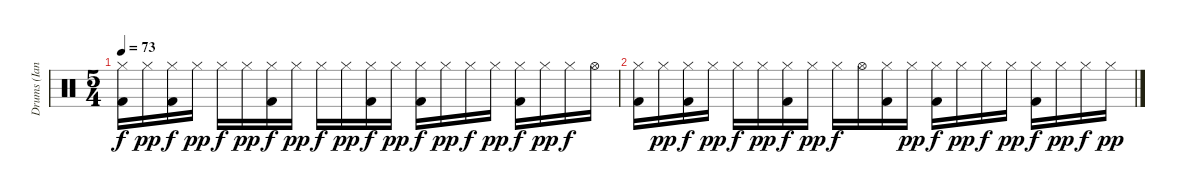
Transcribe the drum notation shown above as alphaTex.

\track ("Drums (Ian Mosley)" "Drums (Ian") {instrument percussion}
\staff {score}
\articulation defaults
\ts (5 4)
\tempo 73
\clef neutral
\ks c
("Kick (hit) 2" "Hi-Hat (closed)").16{dy f} "Hi-Hat (closed)".16{dy pp} ("Kick (hit) 2" "Hi-Hat (closed)").16{dy f} "Hi-Hat (closed)".16{dy pp} "Hi-Hat (closed)".16{dy f} "Hi-Hat (closed)".16{dy pp} ("Kick (hit) 2" "Hi-Hat (closed)").16{dy f} "Hi-Hat (closed)".16{dy pp} "Hi-Hat (closed)".16{dy f} "Hi-Hat (closed)".16{dy pp} ("Kick (hit) 2" "Hi-Hat (closed)").16{dy f} "Hi-Hat (closed)".16{dy pp} ("Kick (hit) 2" "Hi-Hat (closed)").16{dy f} "Hi-Hat (closed)".16{dy pp} "Hi-Hat (closed)".16{dy f} "Hi-Hat (closed)".16{dy pp} ("Kick (hit) 2" "Hi-Hat (closed)").16{dy f} "Hi-Hat (closed)".16{dy pp} "Hi-Hat (closed)".16{dy f} "Hi-Hat (open)".16 |
("Kick (hit) 2" "Hi-Hat (closed)").16 "Hi-Hat (closed)".16{dy pp} ("Kick (hit) 2" "Hi-Hat (closed)").16{dy f} "Hi-Hat (closed)".16{dy pp} "Hi-Hat (closed)".16{dy f} "Hi-Hat (closed)".16{dy pp} ("Kick (hit) 2" "Hi-Hat (closed)").16{dy f} "Hi-Hat (closed)".16{dy pp} "Hi-Hat (closed)".16{dy f} "Hi-Hat (open)".16 ("Kick (hit) 2" "Hi-Hat (closed)").16 "Hi-Hat (closed)".16{dy pp} ("Kick (hit) 2" "Hi-Hat (closed)").16{dy f} "Hi-Hat (closed)".16{dy pp} "Hi-Hat (closed)".16{dy f} "Hi-Hat (closed)".16{dy pp} ("Kick (hit) 2" "Hi-Hat (closed)").16{dy f} "Hi-Hat (closed)".16{dy pp} "Hi-Hat (closed)".16{dy f} "Hi-Hat (closed)".16{dy pp}
